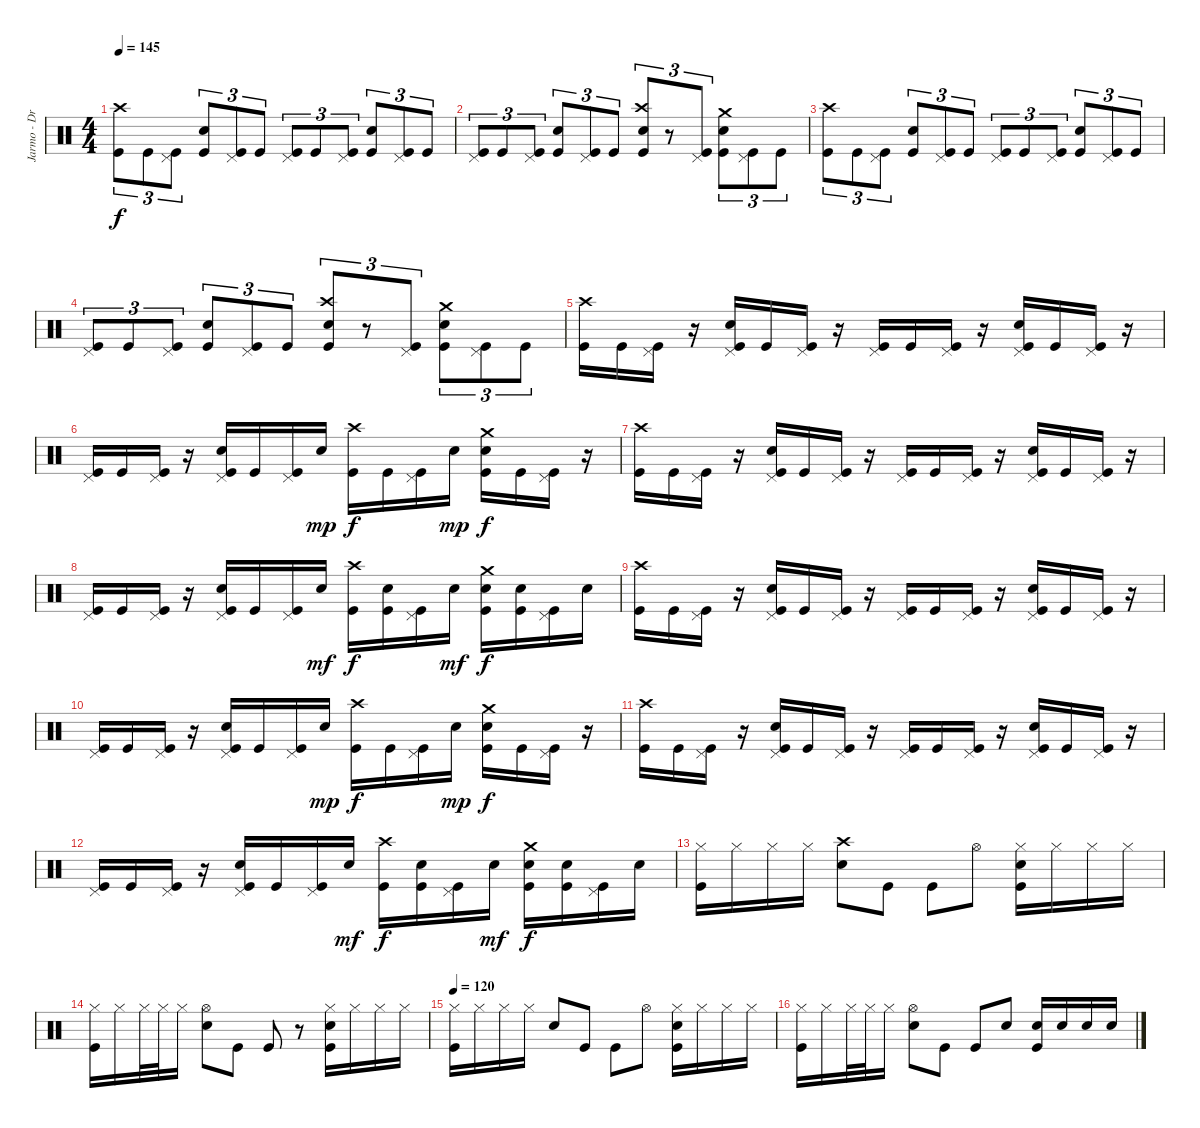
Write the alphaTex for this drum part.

\track ("Jarmo - Drums" "Jarmo - Dr") {instrument percussion}
\staff {score}
\articulation defaults
\ts (4 4)
\tempo 145
\clef neutral
\ks c
("Kick (hit)" "Crash high (hit)").8{tu (3 2) dy f} "Kick (hit)".8{tu (3 2)} ("Kick (hit)" "Pedal Hi-Hat (hit)").8{tu (3 2)} ("Kick (hit)" "Electric Snare (hit)").8{tu (3 2)} ("Kick (hit)" "Pedal Hi-Hat (hit)").8{tu (3 2)} "Kick (hit)".8{tu (3 2)} ("Kick (hit)" "Pedal Hi-Hat (hit)").8{tu (3 2)} "Kick (hit)".8{tu (3 2)} ("Kick (hit)" "Pedal Hi-Hat (hit)").8{tu (3 2)} ("Kick (hit)" "Electric Snare (hit)").8{tu (3 2)} ("Kick (hit)" "Pedal Hi-Hat (hit)").8{tu (3 2)} "Kick (hit)".8{tu (3 2)} |
("Kick (hit)" "Pedal Hi-Hat (hit)").8{tu (3 2)} "Kick (hit)".8{tu (3 2)} ("Kick (hit)" "Pedal Hi-Hat (hit)").8{tu (3 2)} ("Kick (hit)" "Electric Snare (hit)").8{tu (3 2)} ("Kick (hit)" "Pedal Hi-Hat (hit)").8{tu (3 2)} "Kick (hit)".8{tu (3 2)} ("Kick (hit)" "Electric Snare (hit)" "Crash high (hit)").8{tu (3 2)} r.8{tu (3 2)} ("Kick (hit)" "Pedal Hi-Hat (hit)").8{tu (3 2)} ("Kick (hit)" "Electric Snare (hit)" "Crash medium (hit)").8{tu (3 2)} ("Kick (hit)" "Pedal Hi-Hat (hit)").8{tu (3 2)} "Kick (hit)".8{tu (3 2)} |
("Kick (hit)" "Crash high (hit)").8{tu (3 2)} "Kick (hit)".8{tu (3 2)} ("Kick (hit)" "Pedal Hi-Hat (hit)").8{tu (3 2)} ("Kick (hit)" "Electric Snare (hit)").8{tu (3 2)} ("Kick (hit)" "Pedal Hi-Hat (hit)").8{tu (3 2)} "Kick (hit)".8{tu (3 2)} ("Kick (hit)" "Pedal Hi-Hat (hit)").8{tu (3 2)} "Kick (hit)".8{tu (3 2)} ("Kick (hit)" "Pedal Hi-Hat (hit)").8{tu (3 2)} ("Kick (hit)" "Electric Snare (hit)").8{tu (3 2)} ("Kick (hit)" "Pedal Hi-Hat (hit)").8{tu (3 2)} "Kick (hit)".8{tu (3 2)} |
("Kick (hit)" "Pedal Hi-Hat (hit)").8{tu (3 2)} "Kick (hit)".8{tu (3 2)} ("Kick (hit)" "Pedal Hi-Hat (hit)").8{tu (3 2)} ("Kick (hit)" "Electric Snare (hit)").8{tu (3 2)} ("Kick (hit)" "Pedal Hi-Hat (hit)").8{tu (3 2)} "Kick (hit)".8{tu (3 2)} ("Kick (hit)" "Electric Snare (hit)" "Crash high (hit)").8{tu (3 2)} r.8{tu (3 2)} ("Kick (hit)" "Pedal Hi-Hat (hit)").8{tu (3 2)} ("Kick (hit)" "Electric Snare (hit)" "Crash medium (hit)").8{tu (3 2)} ("Kick (hit)" "Pedal Hi-Hat (hit)").8{tu (3 2)} "Kick (hit)".8{tu (3 2)} |
("Kick (hit)" "Crash high (hit)").16 "Kick (hit)".16 ("Kick (hit)" "Pedal Hi-Hat (hit)").16 r.16 ("Kick (hit)" "Electric Snare (hit)" "Pedal Hi-Hat (hit)").16 "Kick (hit)".16 ("Kick (hit)" "Pedal Hi-Hat (hit)").16 r.16 ("Kick (hit)" "Pedal Hi-Hat (hit)").16 "Kick (hit)".16 ("Kick (hit)" "Pedal Hi-Hat (hit)").16 r.16 ("Kick (hit)" "Electric Snare (hit)" "Pedal Hi-Hat (hit)").16 "Kick (hit)".16 ("Kick (hit)" "Pedal Hi-Hat (hit)").16 r.16 |
("Kick (hit)" "Pedal Hi-Hat (hit)").16 "Kick (hit)".16 ("Kick (hit)" "Pedal Hi-Hat (hit)").16 r.16 ("Kick (hit)" "Electric Snare (hit)" "Pedal Hi-Hat (hit)").16 "Kick (hit)".16 ("Kick (hit)" "Pedal Hi-Hat (hit)").16 "Electric Snare (hit)".16{dy mp} ("Kick (hit)" "Crash high (hit)").16{dy f} "Kick (hit)".16 ("Kick (hit)" "Pedal Hi-Hat (hit)").16 "Electric Snare (hit)".16{dy mp} ("Kick (hit)" "Electric Snare (hit)" "Crash medium (hit)").16{dy f} "Kick (hit)".16 ("Kick (hit)" "Pedal Hi-Hat (hit)").16 r.16 |
("Kick (hit)" "Crash high (hit)").16 "Kick (hit)".16 ("Kick (hit)" "Pedal Hi-Hat (hit)").16 r.16 ("Kick (hit)" "Electric Snare (hit)" "Pedal Hi-Hat (hit)").16 "Kick (hit)".16 ("Kick (hit)" "Pedal Hi-Hat (hit)").16 r.16 ("Kick (hit)" "Pedal Hi-Hat (hit)").16 "Kick (hit)".16 ("Kick (hit)" "Pedal Hi-Hat (hit)").16 r.16 ("Kick (hit)" "Electric Snare (hit)" "Pedal Hi-Hat (hit)").16 "Kick (hit)".16 ("Kick (hit)" "Pedal Hi-Hat (hit)").16 r.16 |
("Kick (hit)" "Pedal Hi-Hat (hit)").16 "Kick (hit)".16 ("Kick (hit)" "Pedal Hi-Hat (hit)").16 r.16 ("Kick (hit)" "Electric Snare (hit)" "Pedal Hi-Hat (hit)").16 "Kick (hit)".16 ("Kick (hit)" "Pedal Hi-Hat (hit)").16 "Electric Snare (hit)".16{dy mf} ("Kick (hit)" "Crash high (hit)").16{dy f} ("Kick (hit)" "Electric Snare (hit)").16 ("Kick (hit)" "Pedal Hi-Hat (hit)").16 "Electric Snare (hit)".16{dy mf} ("Kick (hit)" "Electric Snare (hit)" "Crash medium (hit)").16{dy f} ("Kick (hit)" "Electric Snare (hit)").16 ("Kick (hit)" "Pedal Hi-Hat (hit)").16 "Electric Snare (hit)".16 |
("Kick (hit)" "Crash high (hit)").16 "Kick (hit)".16 ("Kick (hit)" "Pedal Hi-Hat (hit)").16 r.16 ("Kick (hit)" "Electric Snare (hit)" "Pedal Hi-Hat (hit)").16 "Kick (hit)".16 ("Kick (hit)" "Pedal Hi-Hat (hit)").16 r.16 ("Kick (hit)" "Pedal Hi-Hat (hit)").16 "Kick (hit)".16 ("Kick (hit)" "Pedal Hi-Hat (hit)").16 r.16 ("Kick (hit)" "Electric Snare (hit)" "Pedal Hi-Hat (hit)").16 "Kick (hit)".16 ("Kick (hit)" "Pedal Hi-Hat (hit)").16 r.16 |
("Kick (hit)" "Pedal Hi-Hat (hit)").16 "Kick (hit)".16 ("Kick (hit)" "Pedal Hi-Hat (hit)").16 r.16 ("Kick (hit)" "Electric Snare (hit)" "Pedal Hi-Hat (hit)").16 "Kick (hit)".16 ("Kick (hit)" "Pedal Hi-Hat (hit)").16 "Electric Snare (hit)".16{dy mp} ("Kick (hit)" "Crash high (hit)").16{dy f} "Kick (hit)".16 ("Kick (hit)" "Pedal Hi-Hat (hit)").16 "Electric Snare (hit)".16{dy mp} ("Kick (hit)" "Electric Snare (hit)" "Crash medium (hit)").16{dy f} "Kick (hit)".16 ("Kick (hit)" "Pedal Hi-Hat (hit)").16 r.16 |
("Kick (hit)" "Crash high (hit)").16 "Kick (hit)".16 ("Kick (hit)" "Pedal Hi-Hat (hit)").16 r.16 ("Kick (hit)" "Electric Snare (hit)" "Pedal Hi-Hat (hit)").16 "Kick (hit)".16 ("Kick (hit)" "Pedal Hi-Hat (hit)").16 r.16 ("Kick (hit)" "Pedal Hi-Hat (hit)").16 "Kick (hit)".16 ("Kick (hit)" "Pedal Hi-Hat (hit)").16 r.16 ("Kick (hit)" "Electric Snare (hit)" "Pedal Hi-Hat (hit)").16 "Kick (hit)".16 ("Kick (hit)" "Pedal Hi-Hat (hit)").16 r.16 |
("Kick (hit)" "Pedal Hi-Hat (hit)").16 "Kick (hit)".16 ("Kick (hit)" "Pedal Hi-Hat (hit)").16 r.16 ("Kick (hit)" "Electric Snare (hit)" "Pedal Hi-Hat (hit)").16 "Kick (hit)".16 ("Kick (hit)" "Pedal Hi-Hat (hit)").16 "Electric Snare (hit)".16{dy mf} ("Kick (hit)" "Crash high (hit)").16{dy f} ("Kick (hit)" "Electric Snare (hit)").16 ("Kick (hit)" "Pedal Hi-Hat (hit)").16 "Electric Snare (hit)".16{dy mf} ("Kick (hit)" "Electric Snare (hit)" "Crash medium (hit)").16{dy f} ("Kick (hit)" "Electric Snare (hit)").16 ("Kick (hit)" "Pedal Hi-Hat (hit)").16 "Electric Snare (hit)".16 |
("Kick (hit)" "Hi-Hat (closed)").16 "Hi-Hat (closed)".16 "Hi-Hat (closed)".16 "Hi-Hat (closed)".16 ("Electric Snare (hit)" "Crash high (hit)").8 "Kick (hit)".8 "Kick (hit)".8 "Hi-Hat (open)".8 ("Kick (hit)" "Hi-Hat (closed)" "Electric Snare (hit)").16 "Hi-Hat (closed)".16 "Hi-Hat (closed)".16 "Hi-Hat (closed)".16 |
("Kick (hit)" "Hi-Hat (closed)").16 "Hi-Hat (closed)".16 "Hi-Hat (closed)".32 "Hi-Hat (closed)".32 "Hi-Hat (closed)".16 ("Electric Snare (hit)" "Hi-Hat (open)").8 "Kick (hit)".8 "Kick (hit)".8 r.8 ("Kick (hit)" "Hi-Hat (closed)" "Electric Snare (hit)").16 "Hi-Hat (closed)".16 "Hi-Hat (closed)".16 "Hi-Hat (closed)".16 |
\tempo 120
("Kick (hit)" "Hi-Hat (closed)").16 "Hi-Hat (closed)".16 "Hi-Hat (closed)".16 "Hi-Hat (closed)".16 "Electric Snare (hit)".8 "Kick (hit)".8 "Kick (hit)".8 "Hi-Hat (open)".8 ("Kick (hit)" "Hi-Hat (closed)" "Electric Snare (hit)").16 "Hi-Hat (closed)".16 "Hi-Hat (closed)".16 "Hi-Hat (closed)".16 |
("Kick (hit)" "Hi-Hat (closed)").16 "Hi-Hat (closed)".16 "Hi-Hat (closed)".32 "Hi-Hat (closed)".32 "Hi-Hat (closed)".16 ("Electric Snare (hit)" "Hi-Hat (open)").8 "Kick (hit)".8 "Kick (hit)".8 "Electric Snare (hit)".8 ("Kick (hit)" "Electric Snare (hit)").16 "Electric Snare (hit)".16 "Electric Snare (hit)".16 "Electric Snare (hit)".16
